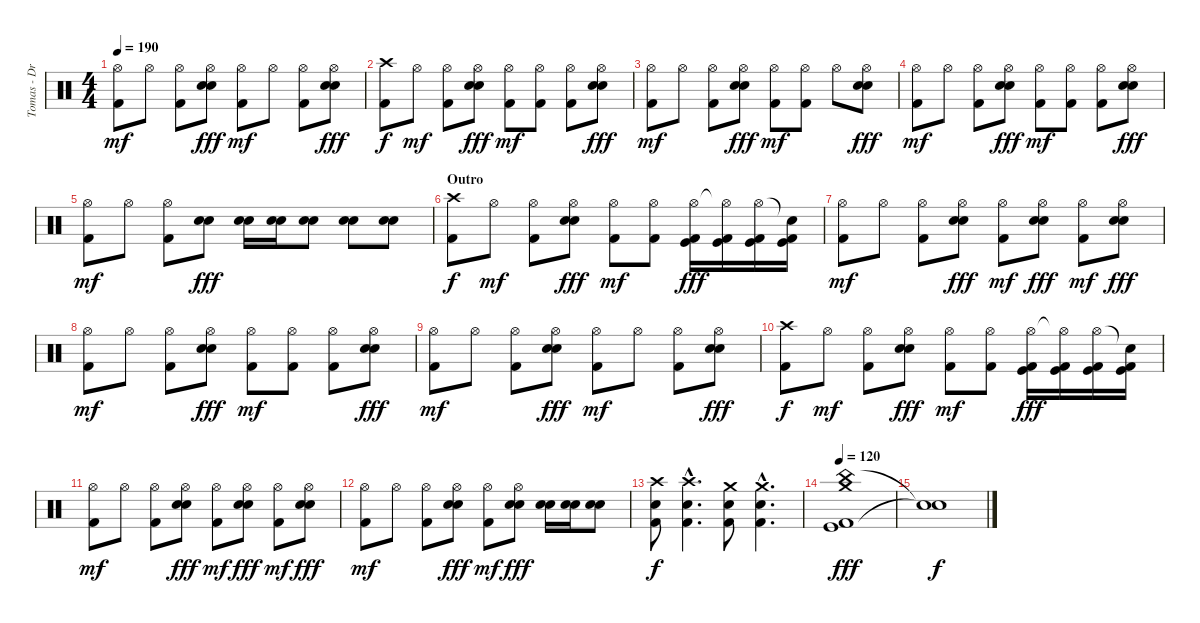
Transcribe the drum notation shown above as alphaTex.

\track ("Tomas - Drums" "Tomas - Dr") {instrument percussion}
\staff {score}
\articulation defaults
\ts (4 4)
\tempo 190
\clef neutral
\ks c
("Hi-Hat (open)" "Kick (hit) 2").8{dy mf} "Hi-Hat (open)".8 ("Hi-Hat (open)" "Kick (hit) 2").8 ("Hi-Hat (open)" "Electric Snare (hit)" "Electric Snare (hit)").8{dy fff} ("Hi-Hat (open)" "Kick (hit) 2").8{dy mf} "Hi-Hat (open)".8 ("Hi-Hat (open)" "Kick (hit) 2").8 ("Hi-Hat (open)" "Electric Snare (hit)" "Electric Snare (hit)").8{dy fff} |
("Crash high (hit)" "Kick (hit) 2").8{dy f} "Hi-Hat (open)".8{dy mf} ("Hi-Hat (open)" "Kick (hit) 2").8 ("Hi-Hat (open)" "Electric Snare (hit)" "Electric Snare (hit)").8{dy fff} ("Hi-Hat (open)" "Kick (hit) 2").8{dy mf} ("Hi-Hat (open)" "Kick (hit) 2").8 ("Hi-Hat (open)" "Kick (hit) 2").8 ("Hi-Hat (open)" "Electric Snare (hit)" "Electric Snare (hit)").8{dy fff} |
("Hi-Hat (open)" "Kick (hit) 2").8{dy mf} "Hi-Hat (open)".8 ("Hi-Hat (open)" "Kick (hit) 2").8 ("Hi-Hat (open)" "Electric Snare (hit)" "Electric Snare (hit)").8{dy fff} ("Hi-Hat (open)" "Kick (hit) 2").8{dy mf} ("Hi-Hat (open)" "Kick (hit) 2").8 "Hi-Hat (open)".8 ("Hi-Hat (open)" "Electric Snare (hit)" "Electric Snare (hit)").8{dy fff} |
("Hi-Hat (open)" "Kick (hit) 2").8{dy mf} "Hi-Hat (open)".8 ("Hi-Hat (open)" "Kick (hit) 2").8 ("Hi-Hat (open)" "Electric Snare (hit)" "Electric Snare (hit)").8{dy fff} ("Hi-Hat (open)" "Kick (hit) 2").8{dy mf} ("Hi-Hat (open)" "Kick (hit) 2").8 ("Hi-Hat (open)" "Kick (hit) 2").8 ("Hi-Hat (open)" "Electric Snare (hit)" "Electric Snare (hit)").8{dy fff} |
("Hi-Hat (open)" "Kick (hit) 2").8{dy mf} "Hi-Hat (open)".8 ("Hi-Hat (open)" "Kick (hit) 2").8 ("Electric Snare (hit)" "Electric Snare (hit)").8{dy fff} ("Electric Snare (hit)" "Electric Snare (hit)").16 ("Electric Snare (hit)" "Electric Snare (hit)").16 ("Electric Snare (hit)" "Electric Snare (hit)").8 ("Electric Snare (hit)" "Electric Snare (hit)").8 ("Electric Snare (hit)" "Electric Snare (hit)").8 |
\section ("" "Outro")
("Crash high (hit)" "Kick (hit) 2").8{dy f} "Hi-Hat (open)".8{dy mf} ("Hi-Hat (open)" "Kick (hit) 2").8 ("Hi-Hat (open)" "Electric Snare (hit)" "Electric Snare (hit)").8{dy fff} ("Hi-Hat (open)" "Kick (hit) 2").8{dy mf} ("Hi-Hat (open)" "Kick (hit) 2").8 ("Hi-Hat (open)" "Kick (hit)" "Kick (hit) 2").16{dy fff} ("Hi-Hat (open)"{t} "Kick (hit)" "Kick (hit) 2").16 ("Hi-Hat (open)" "Kick (hit)" "Kick (hit) 2").16 ("Snare (hit)"{t} "Kick (hit)" "Kick (hit) 2").16 |
("Hi-Hat (open)" "Kick (hit) 2").8{dy mf} "Hi-Hat (open)".8 ("Hi-Hat (open)" "Kick (hit) 2").8 ("Hi-Hat (open)" "Electric Snare (hit)" "Electric Snare (hit)").8{dy fff} ("Hi-Hat (open)" "Kick (hit) 2").8{dy mf} ("Hi-Hat (open)" "Electric Snare (hit)" "Electric Snare (hit)").8{dy fff} ("Hi-Hat (open)" "Kick (hit) 2").8{dy mf} ("Hi-Hat (open)" "Electric Snare (hit)" "Electric Snare (hit)").8{dy fff} |
("Hi-Hat (open)" "Kick (hit) 2").8{dy mf} "Hi-Hat (open)".8 ("Hi-Hat (open)" "Kick (hit) 2").8 ("Hi-Hat (open)" "Electric Snare (hit)" "Electric Snare (hit)").8{dy fff} ("Hi-Hat (open)" "Kick (hit) 2").8{dy mf} ("Hi-Hat (open)" "Kick (hit) 2").8 ("Hi-Hat (open)" "Kick (hit) 2").8 ("Hi-Hat (open)" "Electric Snare (hit)" "Electric Snare (hit)").8{dy fff} |
("Hi-Hat (open)" "Kick (hit) 2").8{dy mf} "Hi-Hat (open)".8 ("Hi-Hat (open)" "Kick (hit) 2").8 ("Hi-Hat (open)" "Electric Snare (hit)" "Electric Snare (hit)").8{dy fff} ("Hi-Hat (open)" "Kick (hit) 2").8{dy mf} "Hi-Hat (open)".8 ("Hi-Hat (open)" "Kick (hit) 2").8 ("Hi-Hat (open)" "Electric Snare (hit)" "Electric Snare (hit)").8{dy fff} |
("Crash high (hit)" "Kick (hit) 2").8{dy f} "Hi-Hat (open)".8{dy mf} ("Hi-Hat (open)" "Kick (hit) 2").8 ("Hi-Hat (open)" "Electric Snare (hit)" "Electric Snare (hit)").8{dy fff} ("Hi-Hat (open)" "Kick (hit) 2").8{dy mf} ("Hi-Hat (open)" "Kick (hit) 2").8 ("Hi-Hat (open)" "Kick (hit)" "Kick (hit) 2").16{dy fff} ("Hi-Hat (open)"{t} "Kick (hit)" "Kick (hit) 2").16 ("Hi-Hat (open)" "Kick (hit)" "Kick (hit) 2").16 ("Snare (hit)"{t} "Kick (hit)" "Kick (hit) 2").16 |
("Hi-Hat (open)" "Kick (hit) 2").8{dy mf} "Hi-Hat (open)".8 ("Hi-Hat (open)" "Kick (hit) 2").8 ("Hi-Hat (open)" "Electric Snare (hit)" "Electric Snare (hit)").8{dy fff} ("Hi-Hat (open)" "Kick (hit) 2").8{dy mf} ("Hi-Hat (open)" "Electric Snare (hit)" "Electric Snare (hit)").8{dy fff} ("Hi-Hat (open)" "Kick (hit) 2").8{dy mf} ("Hi-Hat (open)" "Electric Snare (hit)" "Electric Snare (hit)").8{dy fff} |
("Hi-Hat (open)" "Kick (hit) 2").8{dy mf} "Hi-Hat (open)".8 ("Hi-Hat (open)" "Kick (hit) 2").8 ("Hi-Hat (open)" "Electric Snare (hit)" "Electric Snare (hit)").8{dy fff} ("Hi-Hat (open)" "Kick (hit) 2").8{dy mf} ("Hi-Hat (open)" "Electric Snare (hit)" "Electric Snare (hit)").8{dy fff} ("Electric Snare (hit)" "Electric Snare (hit)").16 ("Electric Snare (hit)" "Electric Snare (hit)").16 ("Electric Snare (hit)" "Electric Snare (hit)").8 |
("Crash high (hit)" "Electric Snare (hit)" "Kick (hit) 2").8{dy f} ("Crash high (hit)"{hac} "Electric Snare (hit)"{hac} "Kick (hit) 2"{hac}).4{d} ("Crash medium (hit)" "Electric Snare (hit)" "Kick (hit) 2").8 ("Crash medium (hit)"{hac} "Electric Snare (hit)"{hac} "Kick (hit) 2"{hac}).4{d} |
\tempo 120
("China (hit)" "Kick (hit)" "Crash medium (hit)" "Kick (hit) 2").1{dy fff} |
("Snare (hit)"{t} "Snare (hit)"{t}).1{dy f}
